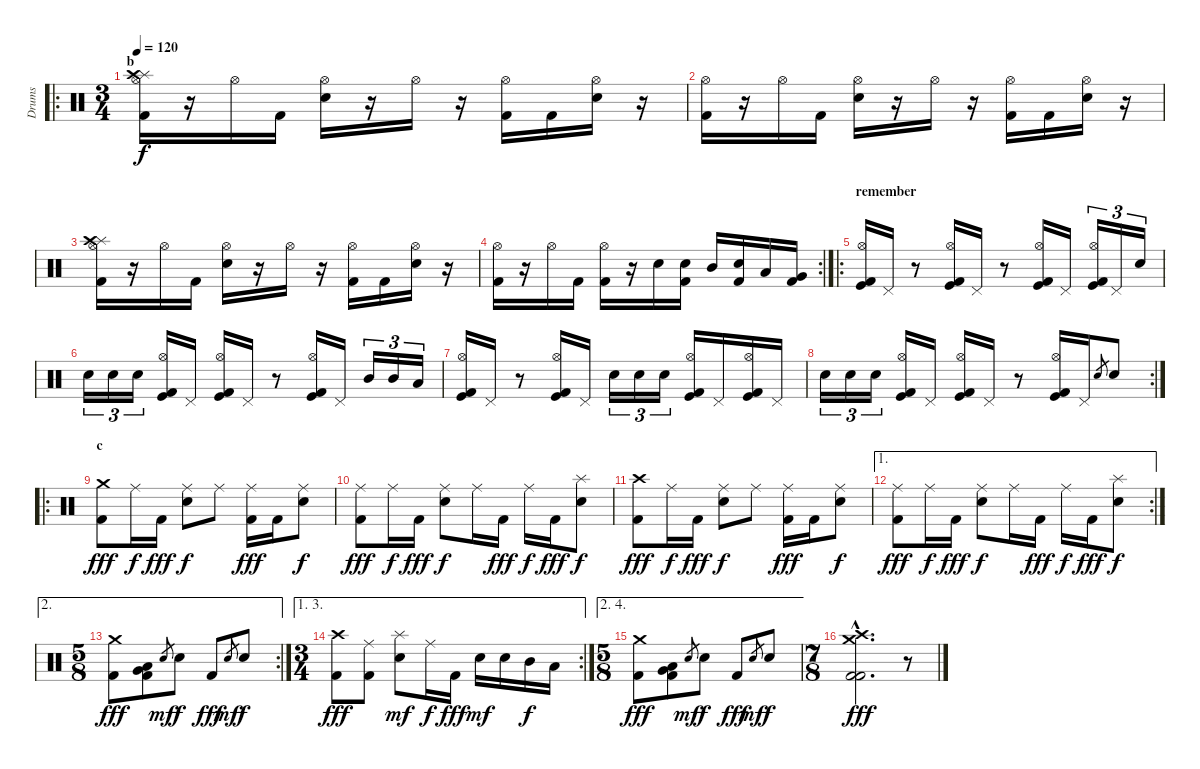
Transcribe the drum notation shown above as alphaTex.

\track ("Drums" "Drums") {instrument percussion}
\staff {score}
\articulation defaults
\ro
\ts (3 4)
\section ("" "b")
\tempo 120
\clef neutral
\ks c
("Kick (hit) 2" "Hi-Hat (open)" "Splash (hit)" "Crash high (hit)").16{dy f} r.16 "Hi-Hat (open)".16 "Kick (hit) 2".16 ("Electric Snare (hit)" "Hi-Hat (open)").16 r.16 "Hi-Hat (open)".16 r.16 ("Kick (hit) 2" "Hi-Hat (open)").16 "Kick (hit) 2".16 ("Electric Snare (hit)" "Hi-Hat (open)").16 r.16 |
("Kick (hit) 2" "Hi-Hat (open)").16 r.16 "Hi-Hat (open)".16 "Kick (hit) 2".16 ("Electric Snare (hit)" "Hi-Hat (open)").16 r.16 "Hi-Hat (open)".16 r.16 ("Kick (hit) 2" "Hi-Hat (open)").16 "Kick (hit) 2".16 ("Electric Snare (hit)" "Hi-Hat (open)").16 r.16 |
("Kick (hit) 2" "Hi-Hat (open)" "Splash (hit)" "Crash high (hit)").16 r.16 "Hi-Hat (open)".16 "Kick (hit) 2".16 ("Electric Snare (hit)" "Hi-Hat (open)").16 r.16 "Hi-Hat (open)".16 r.16 ("Kick (hit) 2" "Hi-Hat (open)").16 "Kick (hit) 2".16 ("Electric Snare (hit)" "Hi-Hat (open)").16 r.16 |
\rc 2
("Kick (hit) 2" "Hi-Hat (open)").16 r.16 "Hi-Hat (open)".16 "Kick (hit) 2".16 ("Kick (hit) 2" "Hi-Hat (open)").16 r.16 "Electric Snare (hit)".16 ("Kick (hit) 2" "Electric Snare (hit)").16 "Mid Tom (hit)".16 ("Kick (hit) 2" "Electric Snare (hit)").16 "Low Tom (hit)".16 ("Kick (hit) 2" "Very Low Tom (hit)").16 |
\ro
\section ("" "remember")
("Hi-Hat (open)" "Kick (hit)" "Kick (hit) 2").16 "Pedal Hi-Hat (hit)".16 r.8 ("Hi-Hat (open)" "Kick (hit)" "Kick (hit) 2").16 "Pedal Hi-Hat (hit)".16 r.8 ("Hi-Hat (open)" "Kick (hit)" "Kick (hit) 2").16 "Pedal Hi-Hat (hit)".16 ("Hi-Hat (open)" "Kick (hit)" "Kick (hit) 2").16{tu (3 2)} "Pedal Hi-Hat (hit)".16{tu (3 2)} "Electric Snare (hit)".16{tu (3 2)} |
"Electric Snare (hit)".16{tu (3 2)} "Electric Snare (hit)".16{tu (3 2)} "Electric Snare (hit)".16{tu (3 2)} ("Hi-Hat (open)" "Kick (hit)" "Kick (hit) 2").16 "Pedal Hi-Hat (hit)".16 ("Hi-Hat (open)" "Kick (hit)" "Kick (hit) 2").16 "Pedal Hi-Hat (hit)".16 r.8 ("Hi-Hat (open)" "Kick (hit)" "Kick (hit) 2").16 "Pedal Hi-Hat (hit)".16 "Mid Tom (hit)".16{tu (3 2)} "Mid Tom (hit)".16{tu (3 2)} "Low Tom (hit)".16{tu (3 2)} |
("Hi-Hat (open)" "Kick (hit) 2" "Kick (hit)").16 "Pedal Hi-Hat (hit)".16 r.8 ("Hi-Hat (open)" "Kick (hit) 2" "Kick (hit)").16 "Pedal Hi-Hat (hit)".16 "Electric Snare (hit)".16{tu (3 2)} "Electric Snare (hit)".16{tu (3 2)} "Electric Snare (hit)".16{tu (3 2)} ("Hi-Hat (open)" "Kick (hit) 2" "Kick (hit)").16 "Pedal Hi-Hat (hit)".16 ("Hi-Hat (open)" "Kick (hit) 2" "Kick (hit)").16 "Pedal Hi-Hat (hit)".16 |
\rc 2 "Electric Snare (hit)".16{tu (3 2)} "Electric Snare (hit)".16{tu (3 2)} "Electric Snare (hit)".16{tu (3 2)}
("Hi-Hat (open)" "Kick (hit)" "Kick (hit) 2").16 "Pedal Hi-Hat (hit)".16 ("Hi-Hat (open)" "Kick (hit)" "Kick (hit) 2").16 "Pedal Hi-Hat (hit)".16 r.8 ("Hi-Hat (open)" "Kick (hit)" "Kick (hit) 2").16 "Pedal Hi-Hat (hit)".16 "Electric Snare (hit)".8{gr} "Snare (hit) 2".8 |
\ro
\section ("" "c")
("Crash medium (hit)" "Kick (hit) 2").8{dy fff} "Ride (middle)".16{dy f} "Kick (hit) 2".16{dy fff} ("Ride (middle)" "Electric Snare (hit)").8{dy f} "Ride (middle)".8 ("Ride (middle)" "Kick (hit) 2").16{dy fff} "Kick (hit) 2".16 ("Ride (middle)" "Electric Snare (hit)").8{dy f} |
("Ride (middle)" "Kick (hit) 2").8{dy fff} "Ride (middle)".16{dy f} "Kick (hit) 2".16{dy fff} ("Ride (middle)" "Electric Snare (hit)").8{dy f} "Ride (middle)".16 "Kick (hit) 2".16{dy fff} "Ride (middle)".16{dy f} "Kick (hit) 2".16{dy fff} ("Splash (hit)" "Electric Snare (hit)").8{dy f} |
("Crash high (hit)" "Kick (hit) 2").8{dy fff} "Ride (middle)".16{dy f} "Kick (hit) 2".16{dy fff} ("Ride (middle)" "Electric Snare (hit)").8{dy f} "Ride (middle)".8 ("Ride (middle)" "Kick (hit) 2").16{dy fff} "Kick (hit) 2".16 ("Ride (middle)" "Electric Snare (hit)").8{dy f} |
\ae 1
\rc 2
("Ride (middle)" "Kick (hit) 2").8{dy fff} "Ride (middle)".16{dy f} "Kick (hit) 2".16{dy fff} ("Ride (middle)" "Electric Snare (hit)").8{dy f} "Ride (middle)".16 "Kick (hit) 2".16{dy fff} "Ride (middle)".16{dy f} "Kick (hit) 2".16{dy fff} ("Splash (hit)" "Electric Snare (hit)").8{dy f} |
\ae 2
\rc 2
\ts (5 8)
("Crash medium (hit)" "Kick (hit) 2").8{dy fff} ("Very Low Tom (hit)" "Low Tom (hit)" "Kick (hit) 2").8{bd 60} "Electric Snare (hit)".8{gr dy mf} "Electric Snare (hit)".8{dy f} "Kick (hit) 2".8{dy fff} "Electric Snare (hit)".8{gr dy mf} "Electric Snare (hit)".8{dy f} |
\ae (1 3)
\rc 2
\ts (3 4)
("Crash high (hit)" "Kick (hit) 2").8{dy fff} ("Ride (middle)" "Kick (hit) 2").8 ("Splash (hit)" "Electric Snare (hit)").8{dy mf} "Ride (middle)".16{dy f} "Kick (hit) 2".16{dy fff} "Electric Snare (hit)".16{dy mf} "Electric Snare (hit)".16 "Mid Tom (hit)".16{dy f} "Low Tom (hit)".16 |
\ae (2 4)
\ts (5 8)
("Crash medium (hit)" "Kick (hit) 2").8{dy fff} ("Very Low Tom (hit)" "Low Tom (hit)" "Kick (hit) 2").8{bd 60} "Electric Snare (hit)".8{gr dy mf} "Electric Snare (hit)".8{dy f} "Kick (hit) 2".8{dy fff} "Electric Snare (hit)".8{gr dy mf} "Electric Snare (hit)".8{dy f} |
\ts (7 8)
("Crash high (hit)"{hac} "Crash medium (hit)"{hac} "Kick (hit) 2"{hac} "Kick (hit) 2"{hac}).2{d dy fff} r.8
